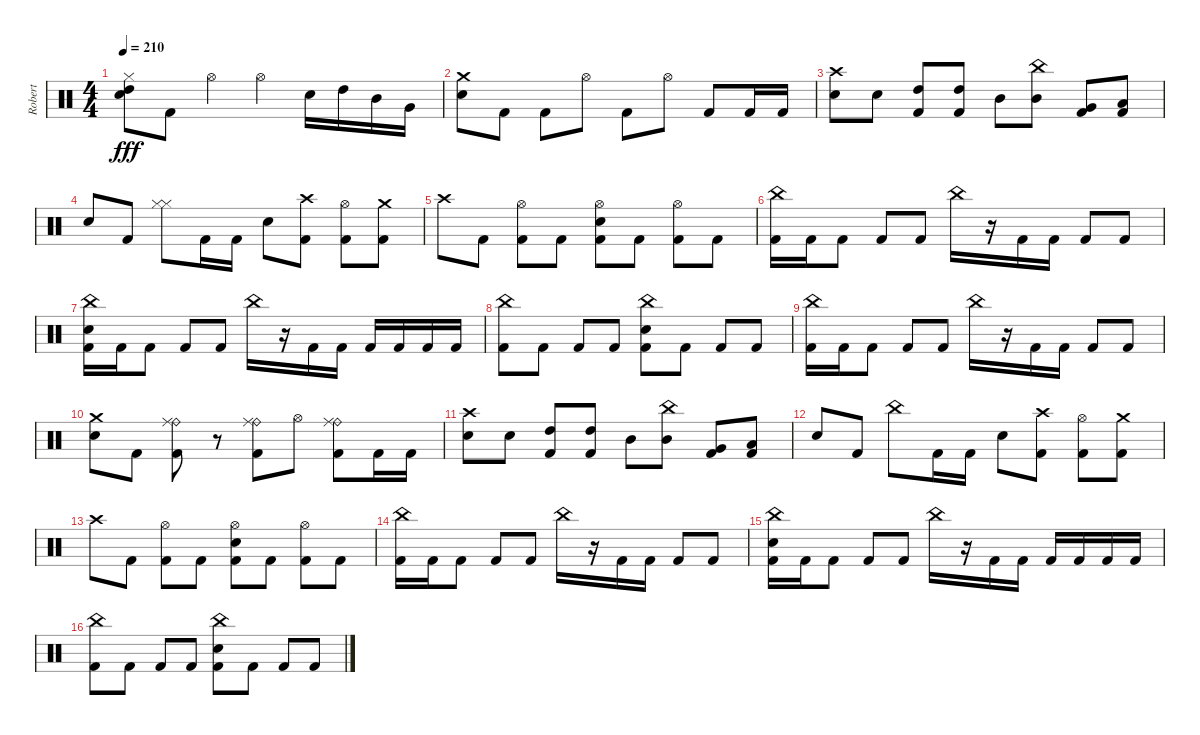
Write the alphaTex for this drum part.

\track ("Robert" "Robert") {instrument percussion}
\staff {score}
\articulation defaults
\ts (4 4)
\tempo 210
\clef neutral
\ks c
("Hi-Hat (closed)" "High Tom (hit)" "Electric Snare (hit)").8{dy fff} "Kick (hit) 2".8 "Hi-Hat (open)".4 "Hi-Hat (open)".4 "Electric Snare (hit)".16 "High Tom (hit)".16 "Mid Tom (hit)".16 "Very Low Tom (hit)".16 |
("Crash medium (hit)" "Electric Snare (hit)").8 "Kick (hit) 2".8 "Kick (hit) 2".8 "Hi-Hat (open)".8 "Kick (hit) 2".8 "Hi-Hat (open)".8 "Kick (hit) 2".8 "Kick (hit) 2".16 "Kick (hit) 2".16 |
("Crash high (hit)" "Electric Snare (hit)").8 "Electric Snare (hit)".8 ("High Tom (hit)" "Kick (hit) 2").8 ("High Tom (hit)" "Kick (hit) 2").8 "Mid Tom (hit)".8 ("China (hit)" "Mid Tom (hit)").8 ("Very Low Tom (hit)" "Kick (hit) 2").8 ("Low Floor Tom (hit)" "Kick (hit) 2").8 |
"Electric Snare (hit)".8 "Kick (hit) 2".8 ("Hi-Hat (closed)" "Hi-Hat (closed)").8 "Kick (hit) 2".16 "Kick (hit) 2".16 "Electric Snare (hit)".8 ("Crash high (hit)" "Kick (hit) 2").8 ("Hi-Hat (open)" "Kick (hit) 2").8 ("Crash medium (hit)" "Kick (hit) 2").8 |
"Crash high (hit)".8 "Kick (hit) 2".8 ("Hi-Hat (open)" "Kick (hit) 2").8 "Kick (hit) 2".8 ("Electric Snare (hit)" "Hi-Hat (open)" "Kick (hit) 2").8 "Kick (hit) 2".8 ("Hi-Hat (open)" "Kick (hit) 2").8 "Kick (hit) 2".8 |
("China (hit)" "Kick (hit) 2").16 "Kick (hit) 2".16 "Kick (hit) 2".8 "Kick (hit) 2".8 "Kick (hit) 2".8 "China (hit)".16 r.16 "Kick (hit) 2".16 "Kick (hit) 2".16 "Kick (hit) 2".8 "Kick (hit) 2".8 |
("China (hit)" "Electric Snare (hit)" "Kick (hit) 2").16 "Kick (hit) 2".16 "Kick (hit) 2".8 "Kick (hit) 2".8 "Kick (hit) 2".8 "China (hit)".16 r.16 "Kick (hit) 2".16 "Kick (hit) 2".16 "Kick (hit) 2".16 "Kick (hit) 2".16 "Kick (hit) 2".16 "Kick (hit) 2".16 |
("China (hit)" "Kick (hit) 2").8 "Kick (hit) 2".8 "Kick (hit) 2".8 "Kick (hit) 2".8 ("China (hit)" "Electric Snare (hit)" "Kick (hit) 2").8 "Kick (hit) 2".8 "Kick (hit) 2".8 "Kick (hit) 2".8 |
("China (hit)" "Kick (hit) 2").16 "Kick (hit) 2".16 "Kick (hit) 2".8 "Kick (hit) 2".8 "Kick (hit) 2".8 "China (hit)".16 r.16 "Kick (hit) 2".16 "Kick (hit) 2".16 "Kick (hit) 2".8 "Kick (hit) 2".8 |
("Crash medium (hit)" "Electric Snare (hit)").8 "Kick (hit) 2".8 ("Kick (hit) 2" "Ride (bell)" "Ride (middle)").8 r.8 ("Kick (hit) 2" "Ride (bell)" "Ride (middle)").8 "Hi-Hat (open)".8 ("Kick (hit) 2" "Ride (bell)" "Ride (middle)").8 "Kick (hit) 2".16 "Kick (hit) 2".16 |
("Crash high (hit)" "Electric Snare (hit)").8 "Electric Snare (hit)".8 ("High Tom (hit)" "Kick (hit) 2").8 ("High Tom (hit)" "Kick (hit) 2").8 "Mid Tom (hit)".8 ("China (hit)" "Mid Tom (hit)").8 ("Very Low Tom (hit)" "Kick (hit) 2").8 ("Low Floor Tom (hit)" "Kick (hit) 2").8 |
"Electric Snare (hit)".8 "Kick (hit) 2".8 "China (hit)".8 "Kick (hit) 2".16 "Kick (hit) 2".16 "Electric Snare (hit)".8 ("Crash high (hit)" "Kick (hit) 2").8 ("Hi-Hat (open)" "Kick (hit) 2").8 ("Crash medium (hit)" "Kick (hit) 2").8 |
"Crash high (hit)".8 "Kick (hit) 2".8 ("Hi-Hat (open)" "Kick (hit) 2").8 "Kick (hit) 2".8 ("Electric Snare (hit)" "Hi-Hat (open)" "Kick (hit) 2").8 "Kick (hit) 2".8 ("Hi-Hat (open)" "Kick (hit) 2").8 "Kick (hit) 2".8 |
("China (hit)" "Kick (hit) 2").16 "Kick (hit) 2".16 "Kick (hit) 2".8 "Kick (hit) 2".8 "Kick (hit) 2".8 "China (hit)".16 r.16 "Kick (hit) 2".16 "Kick (hit) 2".16 "Kick (hit) 2".8 "Kick (hit) 2".8 |
("China (hit)" "Electric Snare (hit)" "Kick (hit) 2").16 "Kick (hit) 2".16 "Kick (hit) 2".8 "Kick (hit) 2".8 "Kick (hit) 2".8 "China (hit)".16 r.16 "Kick (hit) 2".16 "Kick (hit) 2".16 "Kick (hit) 2".16 "Kick (hit) 2".16 "Kick (hit) 2".16 "Kick (hit) 2".16 |
("China (hit)" "Kick (hit) 2").8 "Kick (hit) 2".8 "Kick (hit) 2".8 "Kick (hit) 2".8 ("China (hit)" "Electric Snare (hit)" "Kick (hit) 2").8 "Kick (hit) 2".8 "Kick (hit) 2".8 "Kick (hit) 2".8
